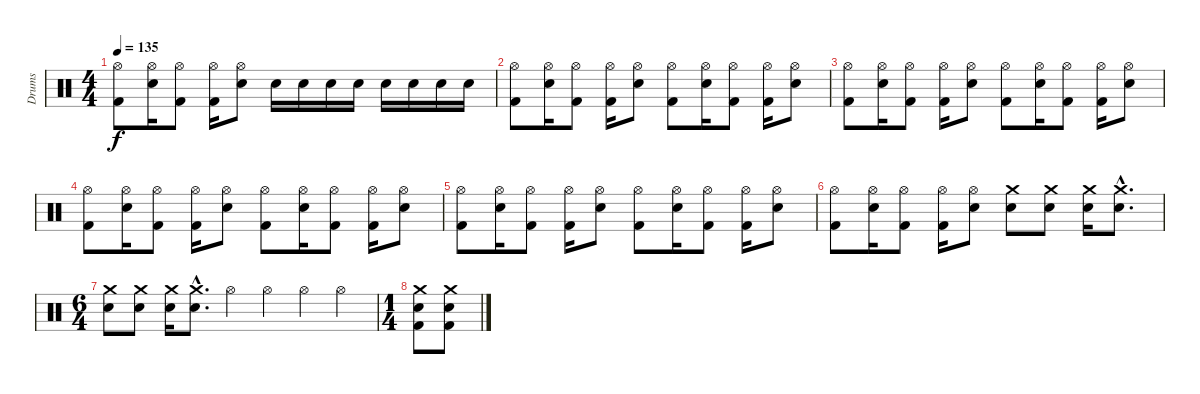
\track ("Drums" "Drums") {instrument percussion}
\staff {score}
\articulation defaults
\ts (4 4)
\tempo 135
\clef neutral
\ks c
("Hi-Hat (open)" "Kick (hit) 2").8{dy f} ("Hi-Hat (open)" "Snare (hit) 2").16 ("Hi-Hat (open)" "Kick (hit) 2").8 ("Hi-Hat (open)" "Kick (hit) 2").16 ("Hi-Hat (open)" "Snare (hit) 2").8 "Snare (hit) 2".16 "Snare (hit) 2".16 "Snare (hit) 2".16 "Snare (hit) 2".16 "Snare (hit) 2".16 "Snare (hit) 2".16 "Snare (hit) 2".16 "Snare (hit) 2".16 |
("Hi-Hat (open)" "Kick (hit) 2").8 ("Hi-Hat (open)" "Snare (hit) 2").16 ("Hi-Hat (open)" "Kick (hit) 2").8 ("Hi-Hat (open)" "Kick (hit) 2").16 ("Hi-Hat (open)" "Snare (hit) 2").8 ("Hi-Hat (open)" "Kick (hit) 2").8 ("Hi-Hat (open)" "Snare (hit) 2").16 ("Hi-Hat (open)" "Kick (hit) 2").8 ("Hi-Hat (open)" "Kick (hit) 2").16 ("Hi-Hat (open)" "Snare (hit) 2").8 |
("Hi-Hat (open)" "Kick (hit) 2").8 ("Hi-Hat (open)" "Snare (hit) 2").16 ("Hi-Hat (open)" "Kick (hit) 2").8 ("Hi-Hat (open)" "Kick (hit) 2").16 ("Hi-Hat (open)" "Snare (hit) 2").8 ("Hi-Hat (open)" "Kick (hit) 2").8 ("Hi-Hat (open)" "Snare (hit) 2").16 ("Hi-Hat (open)" "Kick (hit) 2").8 ("Hi-Hat (open)" "Kick (hit) 2").16 ("Hi-Hat (open)" "Snare (hit) 2").8 |
("Hi-Hat (open)" "Kick (hit) 2").8 ("Hi-Hat (open)" "Snare (hit) 2").16 ("Hi-Hat (open)" "Kick (hit) 2").8 ("Hi-Hat (open)" "Kick (hit) 2").16 ("Hi-Hat (open)" "Snare (hit) 2").8 ("Hi-Hat (open)" "Kick (hit) 2").8 ("Hi-Hat (open)" "Snare (hit) 2").16 ("Hi-Hat (open)" "Kick (hit) 2").8 ("Hi-Hat (open)" "Kick (hit) 2").16 ("Hi-Hat (open)" "Snare (hit) 2").8 |
("Hi-Hat (open)" "Kick (hit) 2").8 ("Hi-Hat (open)" "Snare (hit) 2").16 ("Hi-Hat (open)" "Kick (hit) 2").8 ("Hi-Hat (open)" "Kick (hit) 2").16 ("Hi-Hat (open)" "Snare (hit) 2").8 ("Hi-Hat (open)" "Kick (hit) 2").8 ("Hi-Hat (open)" "Snare (hit) 2").16 ("Hi-Hat (open)" "Kick (hit) 2").8 ("Hi-Hat (open)" "Kick (hit) 2").16 ("Hi-Hat (open)" "Snare (hit) 2").8 |
("Hi-Hat (open)" "Kick (hit) 2").8 ("Hi-Hat (open)" "Snare (hit) 2").16 ("Hi-Hat (open)" "Kick (hit) 2").8 ("Hi-Hat (open)" "Kick (hit) 2").16 ("Hi-Hat (open)" "Snare (hit) 2").8 ("Crash medium (hit)" "Snare (hit) 2").8 ("Crash medium (hit)" "Snare (hit) 2").8 ("Crash medium (hit)" "Snare (hit) 2").16 ("Crash medium (hit)"{hac} "Snare (hit) 2"{hac}).8{d} |
\ts (6 4)
("Crash medium (hit)" "Snare (hit) 2").8 ("Crash medium (hit)" "Snare (hit) 2").8 ("Crash medium (hit)" "Snare (hit) 2").16 ("Crash medium (hit)"{hac} "Snare (hit) 2"{hac}).8{d} "Hi-Hat (open)".4 "Hi-Hat (open)".4 "Hi-Hat (open)".4 "Hi-Hat (open)".4 |
\ts (1 4)
("Crash medium (hit)" "Snare (hit) 2" "Kick (hit) 2").8 ("Crash medium (hit)" "Snare (hit) 2" "Kick (hit) 2").8
